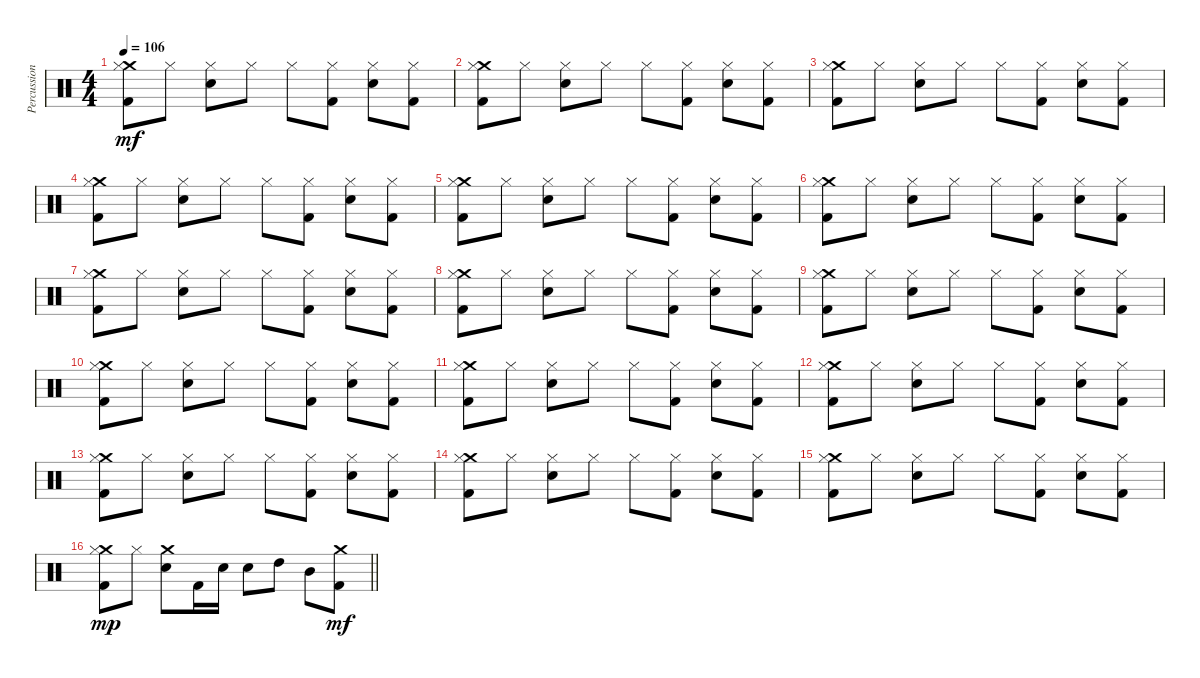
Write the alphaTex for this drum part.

\track ("Percussion" "Percussion") {instrument percussion}
\staff {score}
\articulation defaults
\ts (4 4)
\tempo 106
\clef neutral
\ks c
("Crash medium (hit)" "Hi-Hat (closed)" "Kick (hit) 2").8{dy mf} "Hi-Hat (closed)".8 ("Hi-Hat (closed)" "Electric Snare (hit)").8 "Hi-Hat (closed)".8 "Hi-Hat (closed)".8 ("Hi-Hat (closed)" "Kick (hit) 2").8 ("Hi-Hat (closed)" "Electric Snare (hit)").8 ("Hi-Hat (closed)" "Kick (hit) 2").8 |
("Crash medium (hit)" "Hi-Hat (closed)" "Kick (hit) 2").8 "Hi-Hat (closed)".8 ("Hi-Hat (closed)" "Electric Snare (hit)").8 "Hi-Hat (closed)".8 "Hi-Hat (closed)".8 ("Hi-Hat (closed)" "Kick (hit) 2").8 ("Hi-Hat (closed)" "Electric Snare (hit)").8 ("Hi-Hat (closed)" "Kick (hit) 2").8 |
("Crash medium (hit)" "Hi-Hat (closed)" "Kick (hit) 2").8 "Hi-Hat (closed)".8 ("Hi-Hat (closed)" "Electric Snare (hit)").8 "Hi-Hat (closed)".8 "Hi-Hat (closed)".8 ("Hi-Hat (closed)" "Kick (hit) 2").8 ("Hi-Hat (closed)" "Electric Snare (hit)").8 ("Hi-Hat (closed)" "Kick (hit) 2").8 |
("Crash medium (hit)" "Hi-Hat (closed)" "Kick (hit) 2").8 "Hi-Hat (closed)".8 ("Hi-Hat (closed)" "Electric Snare (hit)").8 "Hi-Hat (closed)".8 "Hi-Hat (closed)".8 ("Hi-Hat (closed)" "Kick (hit) 2").8 ("Hi-Hat (closed)" "Electric Snare (hit)").8 ("Hi-Hat (closed)" "Kick (hit) 2").8 |
("Crash medium (hit)" "Hi-Hat (closed)" "Kick (hit) 2").8 "Hi-Hat (closed)".8 ("Hi-Hat (closed)" "Electric Snare (hit)").8 "Hi-Hat (closed)".8 "Hi-Hat (closed)".8 ("Hi-Hat (closed)" "Kick (hit) 2").8 ("Hi-Hat (closed)" "Electric Snare (hit)").8 ("Hi-Hat (closed)" "Kick (hit) 2").8 |
("Crash medium (hit)" "Hi-Hat (closed)" "Kick (hit) 2").8 "Hi-Hat (closed)".8 ("Hi-Hat (closed)" "Electric Snare (hit)").8 "Hi-Hat (closed)".8 "Hi-Hat (closed)".8 ("Hi-Hat (closed)" "Kick (hit) 2").8 ("Hi-Hat (closed)" "Electric Snare (hit)").8 ("Hi-Hat (closed)" "Kick (hit) 2").8 |
("Crash medium (hit)" "Hi-Hat (closed)" "Kick (hit) 2").8 "Hi-Hat (closed)".8 ("Hi-Hat (closed)" "Electric Snare (hit)").8 "Hi-Hat (closed)".8 "Hi-Hat (closed)".8 ("Hi-Hat (closed)" "Kick (hit) 2").8 ("Hi-Hat (closed)" "Electric Snare (hit)").8 ("Hi-Hat (closed)" "Kick (hit) 2").8 |
("Crash medium (hit)" "Hi-Hat (closed)" "Kick (hit) 2").8 "Hi-Hat (closed)".8 ("Hi-Hat (closed)" "Electric Snare (hit)").8 "Hi-Hat (closed)".8 "Hi-Hat (closed)".8 ("Hi-Hat (closed)" "Kick (hit) 2").8 ("Hi-Hat (closed)" "Electric Snare (hit)").8 ("Hi-Hat (closed)" "Kick (hit) 2").8 |
("Crash medium (hit)" "Hi-Hat (closed)" "Kick (hit) 2").8 "Hi-Hat (closed)".8 ("Hi-Hat (closed)" "Electric Snare (hit)").8 "Hi-Hat (closed)".8 "Hi-Hat (closed)".8 ("Hi-Hat (closed)" "Kick (hit) 2").8 ("Hi-Hat (closed)" "Electric Snare (hit)").8 ("Hi-Hat (closed)" "Kick (hit) 2").8 |
("Crash medium (hit)" "Hi-Hat (closed)" "Kick (hit) 2").8 "Hi-Hat (closed)".8 ("Hi-Hat (closed)" "Electric Snare (hit)").8 "Hi-Hat (closed)".8 "Hi-Hat (closed)".8 ("Hi-Hat (closed)" "Kick (hit) 2").8 ("Hi-Hat (closed)" "Electric Snare (hit)").8 ("Hi-Hat (closed)" "Kick (hit) 2").8 |
("Crash medium (hit)" "Hi-Hat (closed)" "Kick (hit) 2").8 "Hi-Hat (closed)".8 ("Hi-Hat (closed)" "Electric Snare (hit)").8 "Hi-Hat (closed)".8 "Hi-Hat (closed)".8 ("Hi-Hat (closed)" "Kick (hit) 2").8 ("Hi-Hat (closed)" "Electric Snare (hit)").8 ("Hi-Hat (closed)" "Kick (hit) 2").8 |
("Crash medium (hit)" "Hi-Hat (closed)" "Kick (hit) 2").8 "Hi-Hat (closed)".8 ("Hi-Hat (closed)" "Electric Snare (hit)").8 "Hi-Hat (closed)".8 "Hi-Hat (closed)".8 ("Hi-Hat (closed)" "Kick (hit) 2").8 ("Hi-Hat (closed)" "Electric Snare (hit)").8 ("Hi-Hat (closed)" "Kick (hit) 2").8 |
("Crash medium (hit)" "Hi-Hat (closed)" "Kick (hit) 2").8 "Hi-Hat (closed)".8 ("Hi-Hat (closed)" "Electric Snare (hit)").8 "Hi-Hat (closed)".8 "Hi-Hat (closed)".8 ("Hi-Hat (closed)" "Kick (hit) 2").8 ("Hi-Hat (closed)" "Electric Snare (hit)").8 ("Hi-Hat (closed)" "Kick (hit) 2").8 |
("Crash medium (hit)" "Hi-Hat (closed)" "Kick (hit) 2").8 "Hi-Hat (closed)".8 ("Hi-Hat (closed)" "Electric Snare (hit)").8 "Hi-Hat (closed)".8 "Hi-Hat (closed)".8 ("Hi-Hat (closed)" "Kick (hit) 2").8 ("Hi-Hat (closed)" "Electric Snare (hit)").8 ("Hi-Hat (closed)" "Kick (hit) 2").8 |
("Crash medium (hit)" "Hi-Hat (closed)" "Kick (hit) 2").8 "Hi-Hat (closed)".8 ("Hi-Hat (closed)" "Electric Snare (hit)").8 "Hi-Hat (closed)".8 "Hi-Hat (closed)".8 ("Hi-Hat (closed)" "Kick (hit) 2").8 ("Hi-Hat (closed)" "Electric Snare (hit)").8 ("Hi-Hat (closed)" "Kick (hit) 2").8 |
\barLineRight lightlight
("Crash medium (hit)" "Hi-Hat (closed)" "Kick (hit) 2").8{dy mp} "Hi-Hat (closed)".8 ("Crash medium (hit)" "Electric Snare (hit)").8 "Kick (hit) 2".16 "Electric Snare (hit)".16 "Electric Snare (hit)".8 "High Tom (hit)".8 "Mid Tom (hit)".8 ("Crash medium (hit)" "Kick (hit) 2").8{dy mf}
